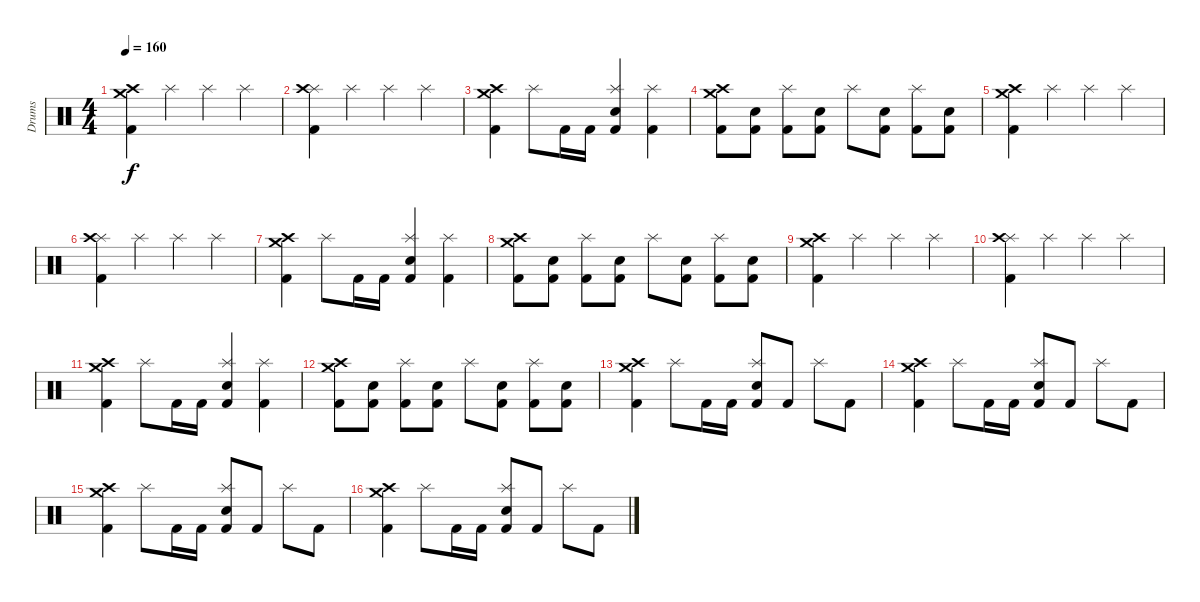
\track ("Drums" "Drums") {instrument percussion}
\staff {score}
\articulation defaults
\ts (4 4)
\tempo 160
\clef neutral
\ks c
("Crash medium (hit)" "Crash high (hit)" "Kick (hit) 2").4{dy f} "Splash (hit)".4 "Splash (hit)".4 "Splash (hit)".4 |
("Splash (hit)" "Crash high (hit)" "Kick (hit) 2").4 "Splash (hit)".4 "Splash (hit)".4 "Splash (hit)".4 |
("Crash high (hit)" "Crash medium (hit)" "Kick (hit) 2").4 "Splash (hit)".8 "Kick (hit) 2".16 "Kick (hit) 2".16 ("Splash (hit)" "Snare (hit) 2" "Kick (hit) 2").4 ("Splash (hit)" "Kick (hit) 2").4 |
("Crash medium (hit)" "Crash high (hit)" "Kick (hit) 2").8 ("Snare (hit) 2" "Kick (hit) 2").8 ("Splash (hit)" "Kick (hit) 2").8 ("Snare (hit) 2" "Kick (hit) 2").8 "Splash (hit)".8 ("Snare (hit) 2" "Kick (hit) 2").8 ("Splash (hit)" "Kick (hit) 2").8 ("Snare (hit) 2" "Kick (hit) 2").8 |
("Crash medium (hit)" "Crash high (hit)" "Kick (hit) 2").4 "Splash (hit)".4 "Splash (hit)".4 "Splash (hit)".4 |
("Splash (hit)" "Crash high (hit)" "Kick (hit) 2").4 "Splash (hit)".4 "Splash (hit)".4 "Splash (hit)".4 |
("Crash high (hit)" "Crash medium (hit)" "Kick (hit) 2").4 "Splash (hit)".8 "Kick (hit) 2".16 "Kick (hit) 2".16 ("Splash (hit)" "Snare (hit) 2" "Kick (hit) 2").4 ("Splash (hit)" "Kick (hit) 2").4 |
("Crash medium (hit)" "Crash high (hit)" "Kick (hit) 2").8 ("Snare (hit) 2" "Kick (hit) 2").8 ("Splash (hit)" "Kick (hit) 2").8 ("Snare (hit) 2" "Kick (hit) 2").8 "Splash (hit)".8 ("Snare (hit) 2" "Kick (hit) 2").8 ("Splash (hit)" "Kick (hit) 2").8 ("Snare (hit) 2" "Kick (hit) 2").8 |
("Crash medium (hit)" "Crash high (hit)" "Kick (hit) 2").4 "Splash (hit)".4 "Splash (hit)".4 "Splash (hit)".4 |
("Splash (hit)" "Crash high (hit)" "Kick (hit) 2").4 "Splash (hit)".4 "Splash (hit)".4 "Splash (hit)".4 |
("Crash high (hit)" "Crash medium (hit)" "Kick (hit) 2").4 "Splash (hit)".8 "Kick (hit) 2".16 "Kick (hit) 2".16 ("Splash (hit)" "Snare (hit) 2" "Kick (hit) 2").4 ("Splash (hit)" "Kick (hit) 2").4 |
("Crash medium (hit)" "Crash high (hit)" "Kick (hit) 2").8 ("Snare (hit) 2" "Kick (hit) 2").8 ("Splash (hit)" "Kick (hit) 2").8 ("Snare (hit) 2" "Kick (hit) 2").8 "Splash (hit)".8 ("Snare (hit) 2" "Kick (hit) 2").8 ("Splash (hit)" "Kick (hit) 2").8 ("Snare (hit) 2" "Kick (hit) 2").8 |
("Crash medium (hit)" "Crash high (hit)" "Kick (hit) 2").4 "Splash (hit)".8 "Kick (hit) 2".16 "Kick (hit) 2".16 ("Splash (hit)" "Snare (hit) 2" "Kick (hit) 2").8 "Kick (hit) 2".8 "Splash (hit)".8 "Kick (hit) 2".8 |
("Crash medium (hit)" "Crash high (hit)" "Kick (hit) 2").4 "Splash (hit)".8 "Kick (hit) 2".16 "Kick (hit) 2".16 ("Splash (hit)" "Snare (hit) 2" "Kick (hit) 2").8 "Kick (hit) 2".8 "Splash (hit)".8 "Kick (hit) 2".8 |
("Crash medium (hit)" "Crash high (hit)" "Kick (hit) 2").4 "Splash (hit)".8 "Kick (hit) 2".16 "Kick (hit) 2".16 ("Splash (hit)" "Snare (hit) 2" "Kick (hit) 2").8 "Kick (hit) 2".8 "Splash (hit)".8 "Kick (hit) 2".8 |
("Crash medium (hit)" "Crash high (hit)" "Kick (hit) 2").4 "Splash (hit)".8 "Kick (hit) 2".16 "Kick (hit) 2".16 ("Splash (hit)" "Snare (hit) 2" "Kick (hit) 2").8 "Kick (hit) 2".8 "Splash (hit)".8 "Kick (hit) 2".8
